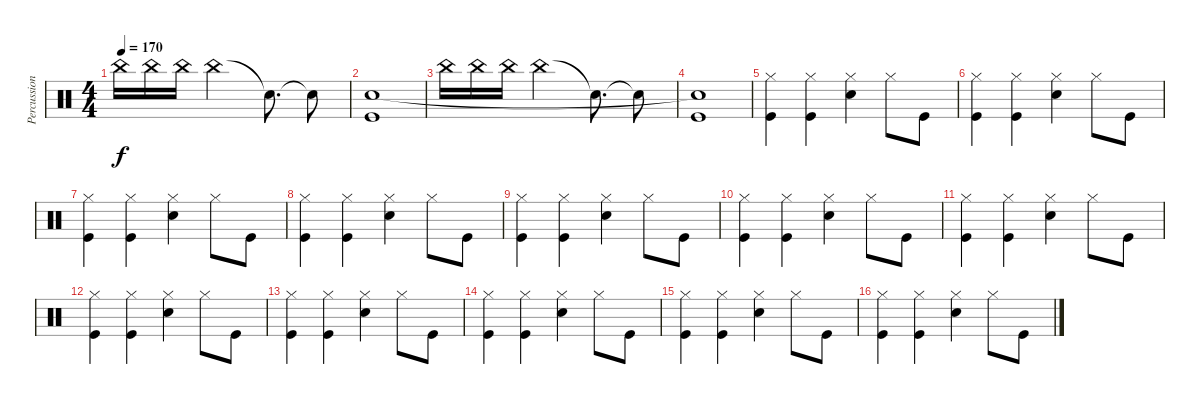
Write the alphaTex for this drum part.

\track ("Percussion" "Percussion") {instrument percussion}
\staff {score}
\articulation defaults
\ts (4 4)
\tempo 170
\clef neutral
\ks c "China (hit)".16{dy f} "China (hit)".16 "China (hit)".16 "China (hit)".2 "Snare (hit)"{t}.8{d} "Snare (hit)"{t}.8
|
("Kick (hit)" "Snare (hit)"{t}).1 |
"China (hit)".16 "China (hit)".16 "China (hit)".16 "China (hit)".2 "Snare (hit)"{t}.8{d} "Snare (hit)"{t}.8 |
("Kick (hit)" "Snare (hit)"{t}).1 |
("Hi-Hat (closed)" "Kick (hit)").4 ("Hi-Hat (closed)" "Kick (hit)").4 ("Hi-Hat (closed)" "Snare (hit) 2").4 "Hi-Hat (closed)".8 "Kick (hit)".8 |
("Hi-Hat (closed)" "Kick (hit)").4 ("Hi-Hat (closed)" "Kick (hit)").4 ("Hi-Hat (closed)" "Snare (hit) 2").4 "Hi-Hat (closed)".8 "Kick (hit)".8 |
("Hi-Hat (closed)" "Kick (hit)").4 ("Hi-Hat (closed)" "Kick (hit)").4 ("Hi-Hat (closed)" "Snare (hit) 2").4 "Hi-Hat (closed)".8 "Kick (hit)".8 |
("Hi-Hat (closed)" "Kick (hit)").4 ("Hi-Hat (closed)" "Kick (hit)").4 ("Hi-Hat (closed)" "Snare (hit) 2").4 "Hi-Hat (closed)".8 "Kick (hit)".8 |
("Hi-Hat (closed)" "Kick (hit)").4 ("Hi-Hat (closed)" "Kick (hit)").4 ("Hi-Hat (closed)" "Snare (hit) 2").4 "Hi-Hat (closed)".8 "Kick (hit)".8 |
("Hi-Hat (closed)" "Kick (hit)").4 ("Hi-Hat (closed)" "Kick (hit)").4 ("Hi-Hat (closed)" "Snare (hit) 2").4 "Hi-Hat (closed)".8 "Kick (hit)".8 |
("Hi-Hat (closed)" "Kick (hit)").4 ("Hi-Hat (closed)" "Kick (hit)").4 ("Hi-Hat (closed)" "Snare (hit) 2").4 "Hi-Hat (closed)".8 "Kick (hit)".8 |
("Hi-Hat (closed)" "Kick (hit)").4 ("Hi-Hat (closed)" "Kick (hit)").4 ("Hi-Hat (closed)" "Snare (hit) 2").4 "Hi-Hat (closed)".8 "Kick (hit)".8 |
("Hi-Hat (closed)" "Kick (hit)").4 ("Hi-Hat (closed)" "Kick (hit)").4 ("Hi-Hat (closed)" "Snare (hit) 2").4 "Hi-Hat (closed)".8 "Kick (hit)".8 |
("Hi-Hat (closed)" "Kick (hit)").4 ("Hi-Hat (closed)" "Kick (hit)").4 ("Hi-Hat (closed)" "Snare (hit) 2").4 "Hi-Hat (closed)".8 "Kick (hit)".8 |
("Hi-Hat (closed)" "Kick (hit)").4 ("Hi-Hat (closed)" "Kick (hit)").4 ("Hi-Hat (closed)" "Snare (hit) 2").4 "Hi-Hat (closed)".8 "Kick (hit)".8 |
("Hi-Hat (closed)" "Kick (hit)").4 ("Hi-Hat (closed)" "Kick (hit)").4 ("Hi-Hat (closed)" "Snare (hit) 2").4 "Hi-Hat (closed)".8 "Kick (hit)".8
